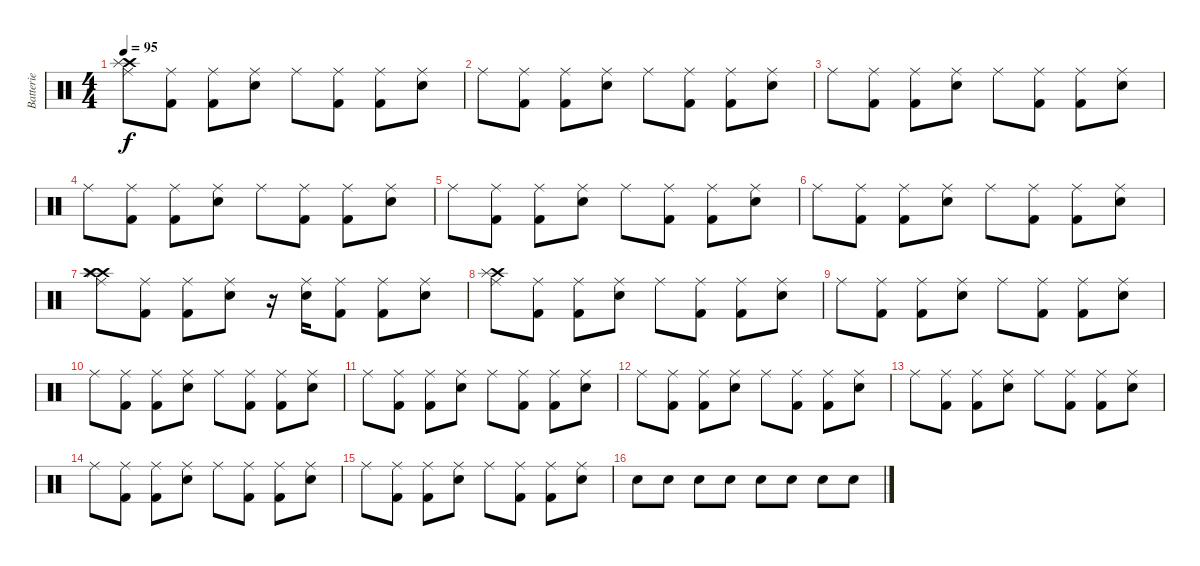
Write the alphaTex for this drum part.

\track ("Batterie" "Batterie") {instrument percussion}
\staff {score}
\articulation defaults
\ts (4 4)
\tempo 95
\clef neutral
\ks c
("Ride (middle)" "Crash high (hit)" "Splash (hit)").8{dy f} ("Ride (middle)" "Kick (hit) 2").8 ("Ride (middle)" "Kick (hit) 2").8 ("Ride (middle)" "Electric Snare (hit)").8 "Ride (middle)".8 ("Ride (middle)" "Kick (hit) 2").8 ("Ride (middle)" "Kick (hit) 2").8 ("Ride (middle)" "Electric Snare (hit)").8 |
"Ride (middle)".8 ("Ride (middle)" "Kick (hit) 2").8 ("Ride (middle)" "Kick (hit) 2").8 ("Ride (middle)" "Electric Snare (hit)").8 "Ride (middle)".8 ("Ride (middle)" "Kick (hit) 2").8 ("Ride (middle)" "Kick (hit) 2").8 ("Ride (middle)" "Electric Snare (hit)").8 |
"Ride (middle)".8 ("Ride (middle)" "Kick (hit) 2").8 ("Ride (middle)" "Kick (hit) 2").8 ("Ride (middle)" "Electric Snare (hit)").8 "Ride (middle)".8 ("Ride (middle)" "Kick (hit) 2").8 ("Ride (middle)" "Kick (hit) 2").8 ("Ride (middle)" "Electric Snare (hit)").8 |
"Ride (middle)".8 ("Ride (middle)" "Kick (hit) 2").8 ("Ride (middle)" "Kick (hit) 2").8 ("Ride (middle)" "Electric Snare (hit)").8 "Ride (middle)".8 ("Ride (middle)" "Kick (hit) 2").8 ("Ride (middle)" "Kick (hit) 2").8 ("Ride (middle)" "Electric Snare (hit)").8 |
"Ride (middle)".8 ("Ride (middle)" "Kick (hit) 2").8 ("Ride (middle)" "Kick (hit) 2").8 ("Ride (middle)" "Electric Snare (hit)").8 "Ride (middle)".8 ("Ride (middle)" "Kick (hit) 2").8 ("Ride (middle)" "Kick (hit) 2").8 ("Ride (middle)" "Electric Snare (hit)").8 |
"Ride (middle)".8 ("Ride (middle)" "Kick (hit) 2").8 ("Ride (middle)" "Kick (hit) 2").8 ("Ride (middle)" "Electric Snare (hit)").8 "Ride (middle)".8 ("Ride (middle)" "Kick (hit) 2").8 ("Ride (middle)" "Kick (hit) 2").8 ("Ride (middle)" "Electric Snare (hit)").8 |
("Ride (middle)" "Crash high (hit)" "Crash high (hit)" "Splash (hit)").8 ("Ride (middle)" "Kick (hit) 2").8 ("Ride (middle)" "Kick (hit) 2").8 ("Ride (middle)" "Electric Snare (hit)").8 r.16 ("Ride (middle)" "Electric Snare (hit)").16 ("Ride (middle)" "Kick (hit) 2").8 ("Ride (middle)" "Kick (hit) 2").8 ("Ride (middle)" "Electric Snare (hit)").8 |
("Ride (middle)" "Crash high (hit)" "Splash (hit)").8 ("Ride (middle)" "Kick (hit) 2").8 ("Ride (middle)" "Kick (hit) 2").8 ("Ride (middle)" "Electric Snare (hit)").8 "Ride (middle)".8 ("Ride (middle)" "Kick (hit) 2").8 ("Ride (middle)" "Kick (hit) 2").8 ("Ride (middle)" "Electric Snare (hit)").8 |
"Ride (middle)".8 ("Ride (middle)" "Kick (hit) 2").8 ("Ride (middle)" "Kick (hit) 2").8 ("Ride (middle)" "Electric Snare (hit)").8 "Ride (middle)".8 ("Ride (middle)" "Kick (hit) 2").8 ("Ride (middle)" "Kick (hit) 2").8 ("Ride (middle)" "Electric Snare (hit)").8 |
"Ride (middle)".8 ("Ride (middle)" "Kick (hit) 2").8 ("Ride (middle)" "Kick (hit) 2").8 ("Ride (middle)" "Electric Snare (hit)").8 "Ride (middle)".8 ("Ride (middle)" "Kick (hit) 2").8 ("Ride (middle)" "Kick (hit) 2").8 ("Ride (middle)" "Electric Snare (hit)").8 |
"Ride (middle)".8 ("Ride (middle)" "Kick (hit) 2").8 ("Ride (middle)" "Kick (hit) 2").8 ("Ride (middle)" "Electric Snare (hit)").8 "Ride (middle)".8 ("Ride (middle)" "Kick (hit) 2").8 ("Ride (middle)" "Kick (hit) 2").8 ("Ride (middle)" "Electric Snare (hit)").8 |
"Ride (middle)".8 ("Ride (middle)" "Kick (hit) 2").8 ("Ride (middle)" "Kick (hit) 2").8 ("Ride (middle)" "Electric Snare (hit)").8 "Ride (middle)".8 ("Ride (middle)" "Kick (hit) 2").8 ("Ride (middle)" "Kick (hit) 2").8 ("Ride (middle)" "Electric Snare (hit)").8 |
"Ride (middle)".8 ("Ride (middle)" "Kick (hit) 2").8 ("Ride (middle)" "Kick (hit) 2").8 ("Ride (middle)" "Electric Snare (hit)").8 "Ride (middle)".8 ("Ride (middle)" "Kick (hit) 2").8 ("Ride (middle)" "Kick (hit) 2").8 ("Ride (middle)" "Electric Snare (hit)").8 |
"Ride (middle)".8 ("Ride (middle)" "Kick (hit) 2").8 ("Ride (middle)" "Kick (hit) 2").8 ("Ride (middle)" "Electric Snare (hit)").8 "Ride (middle)".8 ("Ride (middle)" "Kick (hit) 2").8 ("Ride (middle)" "Kick (hit) 2").8 ("Ride (middle)" "Electric Snare (hit)").8 |
"Ride (middle)".8 ("Ride (middle)" "Kick (hit) 2").8 ("Ride (middle)" "Kick (hit) 2").8 ("Ride (middle)" "Electric Snare (hit)").8 "Ride (middle)".8 ("Ride (middle)" "Kick (hit) 2").8 ("Ride (middle)" "Kick (hit) 2").8 ("Ride (middle)" "Electric Snare (hit)").8 |
"Electric Snare (hit)".8 "Electric Snare (hit)".8 "Electric Snare (hit)".8 "Electric Snare (hit)".8 "Electric Snare (hit)".8 "Electric Snare (hit)".8 "Electric Snare (hit)".8 "Electric Snare (hit)".8
